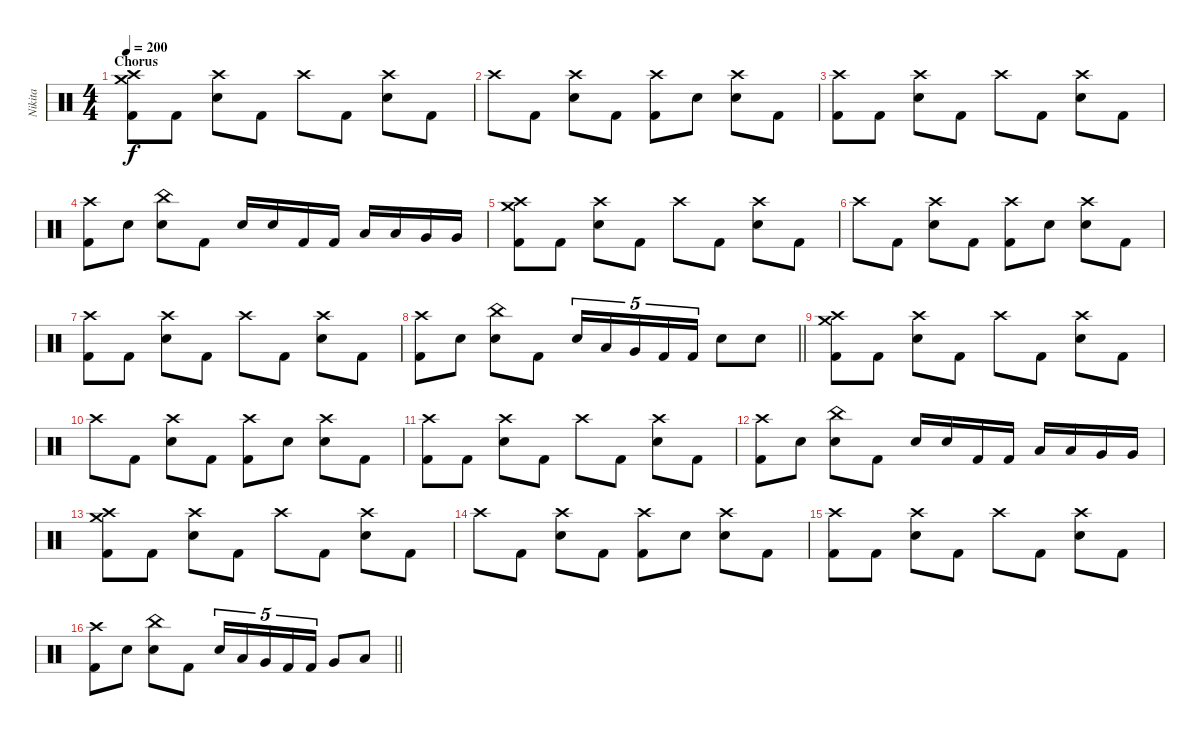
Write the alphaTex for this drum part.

\track ("Nikita" "Nikita") {instrument percussion}
\staff {score}
\articulation defaults
\ts (4 4)
\section ("" "Chorus")
\tempo 200
\clef neutral
\ks c
("Crash high (hit)" "Crash medium (hit)" "Kick (hit) 2").8{dy f} "Kick (hit) 2".8 ("Crash high (hit)" "Electric Snare (hit)").8 "Kick (hit) 2".8 "Crash high (hit)".8 "Kick (hit) 2".8 ("Crash high (hit)" "Electric Snare (hit)").8 "Kick (hit) 2".8 |
"Crash high (hit)".8 "Kick (hit) 2".8 ("Crash high (hit)" "Electric Snare (hit)").8 "Kick (hit) 2".8 ("Crash high (hit)" "Kick (hit) 2").8 "Electric Snare (hit)".8 ("Crash high (hit)" "Electric Snare (hit)").8 "Kick (hit) 2".8 |
("Crash high (hit)" "Kick (hit) 2").8 "Kick (hit) 2".8 ("Crash high (hit)" "Electric Snare (hit)").8 "Kick (hit) 2".8 "Crash high (hit)".8 "Kick (hit) 2".8 ("Crash high (hit)" "Electric Snare (hit)").8 "Kick (hit) 2".8 |
("Crash high (hit)" "Kick (hit) 2").8 "Electric Snare (hit)".8 ("China (hit)" "Electric Snare (hit)").8 "Kick (hit) 2".8 "Electric Snare (hit)".16 "Electric Snare (hit)".16 "Kick (hit) 2".16 "Kick (hit) 2".16 "Low Tom (hit)".16 "Low Tom (hit)".16 "Very Low Tom (hit)".16 "Very Low Tom (hit)".16 |
("Crash high (hit)" "Crash medium (hit)" "Kick (hit) 2").8 "Kick (hit) 2".8 ("Crash high (hit)" "Electric Snare (hit)").8 "Kick (hit) 2".8 "Crash high (hit)".8 "Kick (hit) 2".8 ("Crash high (hit)" "Electric Snare (hit)").8 "Kick (hit) 2".8 |
"Crash high (hit)".8 "Kick (hit) 2".8 ("Crash high (hit)" "Electric Snare (hit)").8 "Kick (hit) 2".8 ("Crash high (hit)" "Kick (hit) 2").8 "Electric Snare (hit)".8 ("Crash high (hit)" "Electric Snare (hit)").8 "Kick (hit) 2".8 |
("Crash high (hit)" "Kick (hit) 2").8 "Kick (hit) 2".8 ("Crash high (hit)" "Electric Snare (hit)").8 "Kick (hit) 2".8 "Crash high (hit)".8 "Kick (hit) 2".8 ("Crash high (hit)" "Electric Snare (hit)").8 "Kick (hit) 2".8 |
\barLineRight lightlight
("Crash high (hit)" "Kick (hit) 2").8 "Electric Snare (hit)".8 ("China (hit)" "Electric Snare (hit)").8 "Kick (hit) 2".8 "Electric Snare (hit)".16{tu (5 4)} "Low Tom (hit)".16{tu (5 4)} "Very Low Tom (hit)".16{tu (5 4)} "Kick (hit) 2".16{tu (5 4)} "Kick (hit) 2".16{tu (5 4)} "Electric Snare (hit)".8 "Electric Snare (hit)".8 |
("Crash high (hit)" "Crash medium (hit)" "Kick (hit) 2").8 "Kick (hit) 2".8 ("Crash high (hit)" "Electric Snare (hit)").8 "Kick (hit) 2".8 "Crash high (hit)".8 "Kick (hit) 2".8 ("Crash high (hit)" "Electric Snare (hit)").8 "Kick (hit) 2".8 |
"Crash high (hit)".8 "Kick (hit) 2".8 ("Crash high (hit)" "Electric Snare (hit)").8 "Kick (hit) 2".8 ("Crash high (hit)" "Kick (hit) 2").8 "Electric Snare (hit)".8 ("Crash high (hit)" "Electric Snare (hit)").8 "Kick (hit) 2".8 |
("Crash high (hit)" "Kick (hit) 2").8 "Kick (hit) 2".8 ("Crash high (hit)" "Electric Snare (hit)").8 "Kick (hit) 2".8 "Crash high (hit)".8 "Kick (hit) 2".8 ("Crash high (hit)" "Electric Snare (hit)").8 "Kick (hit) 2".8 |
("Crash high (hit)" "Kick (hit) 2").8 "Electric Snare (hit)".8 ("China (hit)" "Electric Snare (hit)").8 "Kick (hit) 2".8 "Electric Snare (hit)".16 "Electric Snare (hit)".16 "Kick (hit) 2".16 "Kick (hit) 2".16 "Low Tom (hit)".16 "Low Tom (hit)".16 "Very Low Tom (hit)".16 "Very Low Tom (hit)".16 |
("Crash high (hit)" "Crash medium (hit)" "Kick (hit) 2").8 "Kick (hit) 2".8 ("Crash high (hit)" "Electric Snare (hit)").8 "Kick (hit) 2".8 "Crash high (hit)".8 "Kick (hit) 2".8 ("Crash high (hit)" "Electric Snare (hit)").8 "Kick (hit) 2".8 |
"Crash high (hit)".8 "Kick (hit) 2".8 ("Crash high (hit)" "Electric Snare (hit)").8 "Kick (hit) 2".8 ("Crash high (hit)" "Kick (hit) 2").8 "Electric Snare (hit)".8 ("Crash high (hit)" "Electric Snare (hit)").8 "Kick (hit) 2".8 |
("Crash high (hit)" "Kick (hit) 2").8 "Kick (hit) 2".8 ("Crash high (hit)" "Electric Snare (hit)").8 "Kick (hit) 2".8 "Crash high (hit)".8 "Kick (hit) 2".8 ("Crash high (hit)" "Electric Snare (hit)").8 "Kick (hit) 2".8 |
\barLineRight lightlight
("Crash high (hit)" "Kick (hit) 2").8 "Electric Snare (hit)".8 ("China (hit)" "Electric Snare (hit)").8 "Kick (hit) 2".8 "Electric Snare (hit)".16{tu (5 4)} "Low Tom (hit)".16{tu (5 4)} "Very Low Tom (hit)".16{tu (5 4)} "Kick (hit) 2".16{tu (5 4)} "Kick (hit) 2".16{tu (5 4)} "Very Low Tom (hit)".8 "Low Tom (hit)".8
